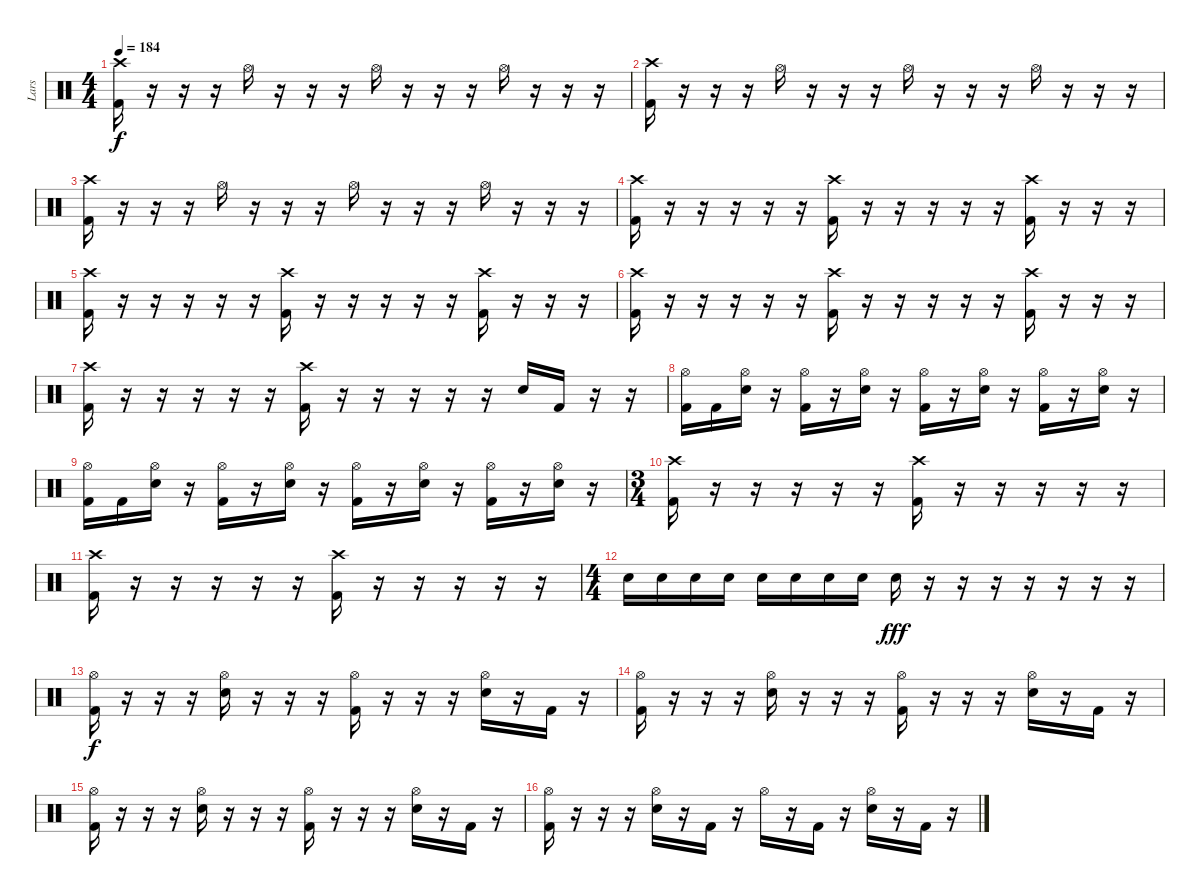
\track ("Lars" "Lars") {instrument percussion}
\staff {score}
\articulation defaults
\ts (4 4)
\tempo 184
\clef neutral
\ks c
("Crash high (hit)" "Kick (hit) 2").16{dy f} r.16 r.16 r.16 "Hi-Hat (open)".16 r.16 r.16 r.16 "Hi-Hat (open)".16 r.16 r.16 r.16 "Hi-Hat (open)".16 r.16 r.16 r.16 |
("Crash high (hit)" "Kick (hit) 2").16 r.16 r.16 r.16 "Hi-Hat (open)".16 r.16 r.16 r.16 "Hi-Hat (open)".16 r.16 r.16 r.16 "Hi-Hat (open)".16 r.16 r.16 r.16 |
("Crash high (hit)" "Kick (hit) 2").16 r.16 r.16 r.16 "Hi-Hat (open)".16 r.16 r.16 r.16 "Hi-Hat (open)".16 r.16 r.16 r.16 "Hi-Hat (open)".16 r.16 r.16 r.16 |
("Crash high (hit)" "Kick (hit) 2").16 r.16 r.16 r.16 r.16 r.16 ("Crash high (hit)" "Kick (hit) 2").16 r.16 r.16 r.16 r.16 r.16 ("Crash high (hit)" "Kick (hit) 2").16 r.16 r.16 r.16 |
("Crash high (hit)" "Kick (hit) 2").16 r.16 r.16 r.16 r.16 r.16 ("Crash high (hit)" "Kick (hit) 2").16 r.16 r.16 r.16 r.16 r.16 ("Crash high (hit)" "Kick (hit) 2").16 r.16 r.16 r.16 |
("Crash high (hit)" "Kick (hit) 2").16 r.16 r.16 r.16 r.16 r.16 ("Crash high (hit)" "Kick (hit) 2").16 r.16 r.16 r.16 r.16 r.16 ("Crash high (hit)" "Kick (hit) 2").16 r.16 r.16 r.16 |
("Crash high (hit)" "Kick (hit) 2").16 r.16 r.16 r.16 r.16 r.16 ("Crash high (hit)" "Kick (hit) 2").16 r.16 r.16 r.16 r.16 r.16 "Electric Snare (hit)".16 "Kick (hit) 2".16 r.16 r.16 |
("Hi-Hat (open)" "Kick (hit) 2").16 "Kick (hit) 2".16 ("Electric Snare (hit)" "Hi-Hat (open)").16 r.16 ("Hi-Hat (open)" "Kick (hit) 2").16 r.16 ("Electric Snare (hit)" "Hi-Hat (open)").16 r.16 ("Hi-Hat (open)" "Kick (hit) 2").16 r.16 ("Electric Snare (hit)" "Hi-Hat (open)").16 r.16 ("Hi-Hat (open)" "Kick (hit) 2").16 r.16 ("Electric Snare (hit)" "Hi-Hat (open)").16 r.16 |
("Hi-Hat (open)" "Kick (hit) 2").16 "Kick (hit) 2".16 ("Electric Snare (hit)" "Hi-Hat (open)").16 r.16 ("Hi-Hat (open)" "Kick (hit) 2").16 r.16 ("Electric Snare (hit)" "Hi-Hat (open)").16 r.16 ("Hi-Hat (open)" "Kick (hit) 2").16 r.16 ("Electric Snare (hit)" "Hi-Hat (open)").16 r.16 ("Hi-Hat (open)" "Kick (hit) 2").16 r.16 ("Electric Snare (hit)" "Hi-Hat (open)").16 r.16 |
\ts (3 4)
("Crash high (hit)" "Kick (hit) 2").16 r.16 r.16 r.16 r.16 r.16 ("Crash high (hit)" "Kick (hit) 2").16 r.16 r.16 r.16 r.16 r.16 |
("Crash high (hit)" "Kick (hit) 2").16 r.16 r.16 r.16 r.16 r.16 ("Crash high (hit)" "Kick (hit) 2").16 r.16 r.16 r.16 r.16 r.16 |
\ts (4 4)
"Electric Snare (hit)".16 "Electric Snare (hit)".16 "Electric Snare (hit)".16 "Electric Snare (hit)".16 "Electric Snare (hit)".16 "Electric Snare (hit)".16 "Electric Snare (hit)".16 "Electric Snare (hit)".16 "Electric Snare (hit)".16{dy fff} r.16 r.16 r.16 r.16 r.16 r.16 r.16 |
("Hi-Hat (open)" "Kick (hit) 2").16{dy f} r.16 r.16 r.16 ("Electric Snare (hit)" "Hi-Hat (open)").16 r.16 r.16 r.16 ("Hi-Hat (open)" "Kick (hit) 2").16 r.16 r.16 r.16 ("Electric Snare (hit)" "Hi-Hat (open)").16 r.16 "Kick (hit) 2".16 r.16 |
("Hi-Hat (open)" "Kick (hit) 2").16 r.16 r.16 r.16 ("Electric Snare (hit)" "Hi-Hat (open)").16 r.16 r.16 r.16 ("Hi-Hat (open)" "Kick (hit) 2").16 r.16 r.16 r.16 ("Electric Snare (hit)" "Hi-Hat (open)").16 r.16 "Kick (hit) 2".16 r.16 |
("Hi-Hat (open)" "Kick (hit) 2").16 r.16 r.16 r.16 ("Electric Snare (hit)" "Hi-Hat (open)").16 r.16 r.16 r.16 ("Hi-Hat (open)" "Kick (hit) 2").16 r.16 r.16 r.16 ("Electric Snare (hit)" "Hi-Hat (open)").16 r.16 "Kick (hit) 2".16 r.16 |
("Hi-Hat (open)" "Kick (hit) 2").16 r.16 r.16 r.16 ("Electric Snare (hit)" "Hi-Hat (open)").16 r.16 "Kick (hit) 2".16 r.16 "Hi-Hat (open)".16 r.16 "Kick (hit) 2".16 r.16 ("Electric Snare (hit)" "Hi-Hat (open)").16 r.16 "Kick (hit) 2".16 r.16
